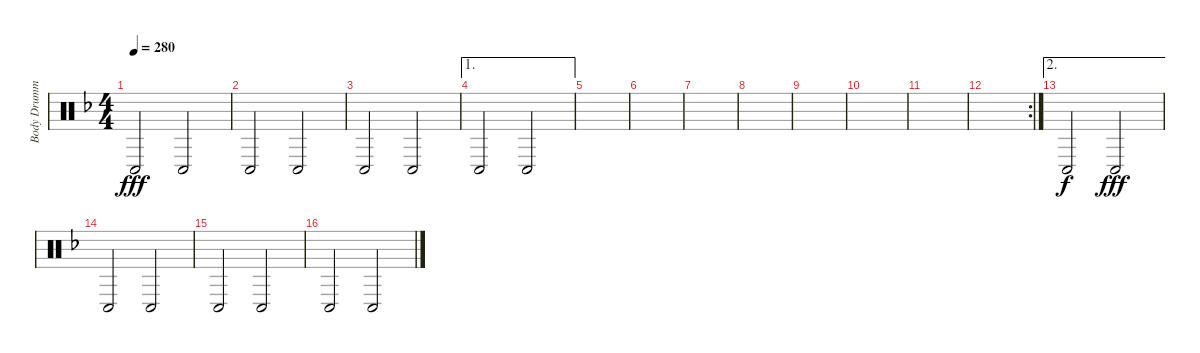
\track ("Body Drumming" "Body Drumm") {instrument percussion}
\staff {score}
\articulation defaults
\ts (4 4)
\tempo 280
\clef neutral
\ks f "Conga low (hit)".2{dy fff} "Conga low (hit)".2
|
"Conga low (hit)".2 "Conga low (hit)".2 |
"Conga low (hit)".2 "Conga low (hit)".2 |
\ae 1 "Conga low (hit)".2 "Conga low (hit)".2
|
|
|
|
|
|
|
|
\rc 2
|
\ae 2 "Conga low (hit)".2{dy f} "Conga low (hit)".2{dy fff}
|
"Conga low (hit)".2 "Conga low (hit)".2 |
"Conga low (hit)".2 "Conga low (hit)".2 |
"Conga low (hit)".2 "Conga low (hit)".2
